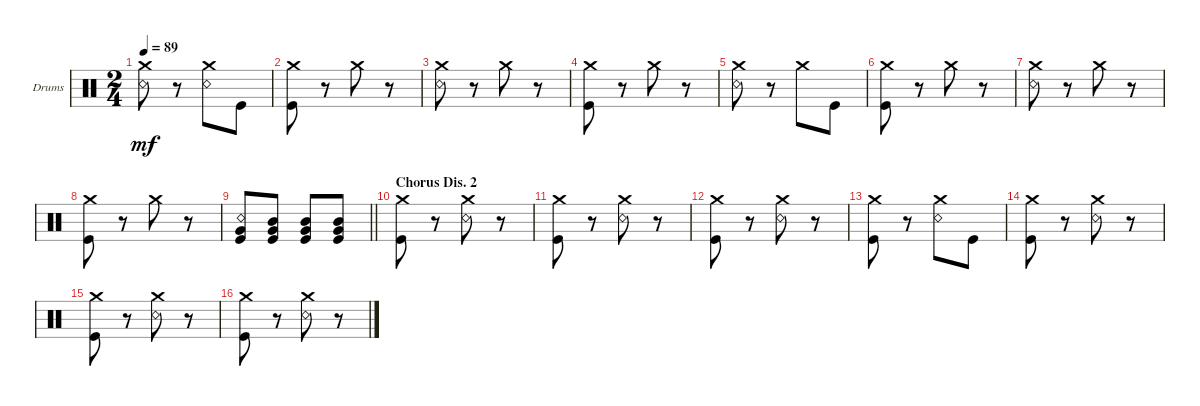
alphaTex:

\bracketExtendMode groupsimilarinstruments
\firstSystemTrackNameOrientation horizontal
\otherSystemsTrackNameOrientation horizontal
\track ("Ryo" "Drums") {instrument percussion}
\staff {score}
\articulation defaults
\ts (2 4)
\tempo 89
\clef neutral
\ks c
("Snare (rim shot)" "Crash medium (hit)").8{dy mf} r.8 ("Crash medium (hit)" "Snare (rim shot)").8 "Kick (hit)".8 |
("Kick (hit)" "Crash medium (hit)").8 r.8 "Crash medium (hit)".8 r.8 |
("Snare (rim shot)" "Crash medium (hit)").8 r.8 "Crash medium (hit)".8 r.8 |
("Kick (hit)" "Crash medium (hit)").8 r.8 "Crash medium (hit)".8 r.8 |
("Snare (rim shot)" "Crash medium (hit)").8 r.8 "Crash medium (hit)".8 "Kick (hit)".8 |
("Kick (hit)" "Crash medium (hit)").8 r.8 "Crash medium (hit)".8 r.8 |
("Snare (rim shot)" "Crash medium (hit)").8 r.8 "Crash medium (hit)".8 r.8 |
("Kick (hit)" "Crash medium (hit)").8 r.8 "Crash medium (hit)".8 r.8 |
\barLineRight lightlight
("Snare (rim shot)" "Kick (hit)" "Very Low Tom (hit)").8 ("Kick (hit)" "Very Low Tom (hit)" "Mid Tom (hit)").8 ("Kick (hit)" "Mid Tom (hit)" "Very Low Tom (hit)").8 ("Kick (hit)" "Mid Tom (hit)" "Very Low Tom (hit)").8 |
\section ("" "Chorus Dis. 2")
("Kick (hit)" "Crash medium (hit)").8 r.8 ("Crash medium (hit)" "Snare (rim shot)").8 r.8 |
("Crash medium (hit)" "Kick (hit)").8 r.8 ("Crash medium (hit)" "Snare (rim shot)").8 r.8 |
("Kick (hit)" "Crash medium (hit)").8 r.8 ("Crash medium (hit)" "Snare (rim shot)").8 r.8 |
("Crash medium (hit)" "Kick (hit)").8 r.8 ("Crash medium (hit)" "Snare (rim shot)").8 "Kick (hit)".8 |
("Kick (hit)" "Crash medium (hit)").8 r.8 ("Crash medium (hit)" "Snare (rim shot)").8 r.8 |
("Crash medium (hit)" "Kick (hit)").8 r.8 ("Crash medium (hit)" "Snare (rim shot)").8 r.8 |
("Kick (hit)" "Crash medium (hit)").8 r.8 ("Crash medium (hit)" "Snare (rim shot)").8 r.8
